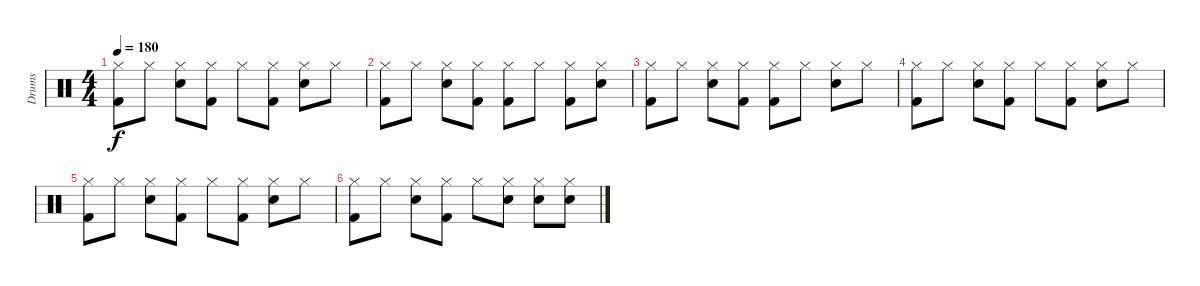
\track ("Drums" "Drums") {instrument percussion}
\staff {score}
\articulation defaults
\ts (4 4)
\tempo 180
\clef neutral
\ks c
("Hi-Hat (closed)" "Kick (hit) 2").8{dy f} "Hi-Hat (closed)".8 ("Hi-Hat (closed)" "Snare (hit) 2").8 ("Hi-Hat (closed)" "Kick (hit) 2").8 "Hi-Hat (closed)".8 ("Hi-Hat (closed)" "Kick (hit) 2").8 ("Hi-Hat (closed)" "Snare (hit) 2").8 "Hi-Hat (closed)".8 |
("Hi-Hat (closed)" "Kick (hit) 2").8 "Hi-Hat (closed)".8 ("Hi-Hat (closed)" "Snare (hit) 2").8 ("Hi-Hat (closed)" "Kick (hit) 2").8 ("Hi-Hat (closed)" "Kick (hit) 2").8 "Hi-Hat (closed)".8 ("Hi-Hat (closed)" "Kick (hit) 2").8 ("Hi-Hat (closed)" "Snare (hit) 2").8 |
("Hi-Hat (closed)" "Kick (hit) 2").8 "Hi-Hat (closed)".8 ("Hi-Hat (closed)" "Snare (hit) 2").8 ("Hi-Hat (closed)" "Kick (hit) 2").8 ("Hi-Hat (closed)" "Kick (hit) 2").8 "Hi-Hat (closed)".8 ("Hi-Hat (closed)" "Snare (hit) 2").8 "Hi-Hat (closed)".8 |
("Hi-Hat (closed)" "Kick (hit) 2").8 "Hi-Hat (closed)".8 ("Hi-Hat (closed)" "Snare (hit) 2").8 ("Hi-Hat (closed)" "Kick (hit) 2").8 "Hi-Hat (closed)".8 ("Hi-Hat (closed)" "Kick (hit) 2").8 ("Hi-Hat (closed)" "Snare (hit) 2").8 "Hi-Hat (closed)".8 |
("Hi-Hat (closed)" "Kick (hit) 2").8 "Hi-Hat (closed)".8 ("Hi-Hat (closed)" "Snare (hit) 2").8 ("Hi-Hat (closed)" "Kick (hit) 2").8 "Hi-Hat (closed)".8 ("Hi-Hat (closed)" "Kick (hit) 2").8 ("Hi-Hat (closed)" "Snare (hit) 2").8 "Hi-Hat (closed)".8 |
("Hi-Hat (closed)" "Kick (hit) 2").8 "Hi-Hat (closed)".8 ("Hi-Hat (closed)" "Snare (hit) 2").8 ("Hi-Hat (closed)" "Kick (hit) 2").8 "Hi-Hat (closed)".8 ("Hi-Hat (closed)" "Snare (hit) 2").8 ("Hi-Hat (closed)" "Snare (hit) 2").8 ("Hi-Hat (closed)" "Snare (hit) 2").8
